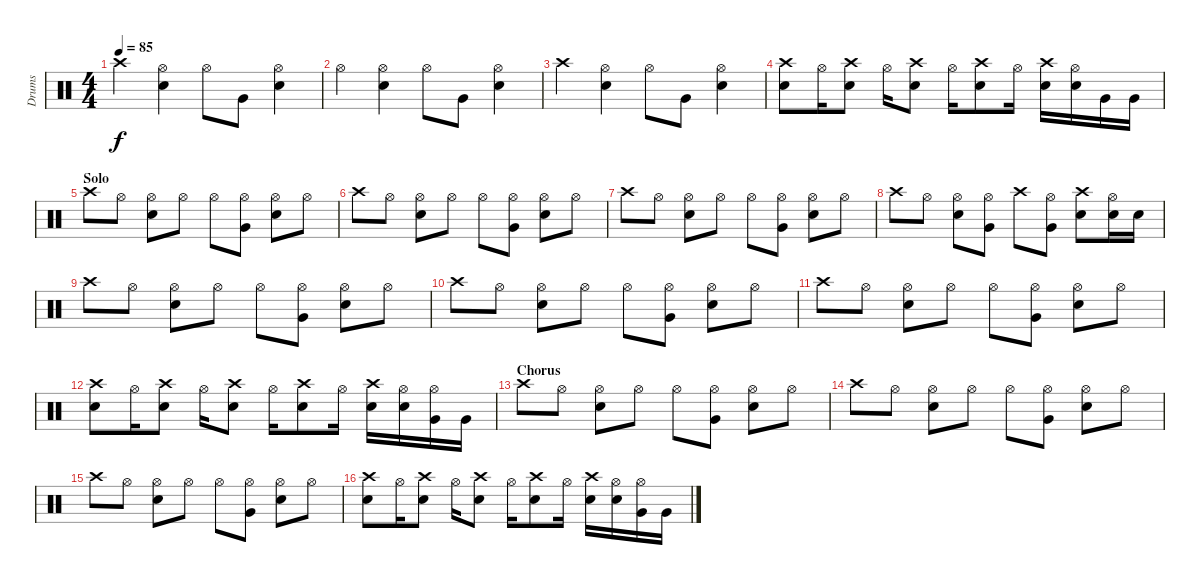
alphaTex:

\track ("Drums" "Drums") {instrument percussion}
\staff {score}
\articulation defaults
\ts (4 4)
\tempo 85
\clef neutral
\ks c "Crash high (hit)".4{dy f}
("Hi-Hat (open)" "Electric Snare (hit)").4 "Hi-Hat (open)".8 "Very Low Tom (hit)".8 ("Hi-Hat (open)" "Electric Snare (hit)").4 |
"Hi-Hat (open)".4 ("Hi-Hat (open)" "Electric Snare (hit)").4 "Hi-Hat (open)".8 "Very Low Tom (hit)".8 ("Hi-Hat (open)" "Electric Snare (hit)").4 |
"Crash high (hit)".4 ("Hi-Hat (open)" "Electric Snare (hit)").4 "Hi-Hat (open)".8 "Very Low Tom (hit)".8 ("Hi-Hat (open)" "Electric Snare (hit)").4 |
("Crash high (hit)" "Electric Snare (hit)").8 "Hi-Hat (open)".16 ("Crash high (hit)" "Electric Snare (hit)").8 "Hi-Hat (open)".16 ("Crash high (hit)" "Electric Snare (hit)").8 "Hi-Hat (open)".16 ("Crash high (hit)" "Electric Snare (hit)").8 "Hi-Hat (open)".16 ("Crash high (hit)" "Electric Snare (hit)").16 ("Hi-Hat (open)" "Electric Snare (hit)").16 "Very Low Tom (hit)".16 "Very Low Tom (hit)".16 |
\section ("" "Solo")
"Crash high (hit)".8 "Hi-Hat (open)".8 ("Hi-Hat (open)" "Electric Snare (hit)").8 "Hi-Hat (open)".8 "Hi-Hat (open)".8 ("Hi-Hat (open)" "Very Low Tom (hit)").8 ("Hi-Hat (open)" "Electric Snare (hit)").8 "Hi-Hat (open)".8 |
"Crash high (hit)".8 "Hi-Hat (open)".8 ("Hi-Hat (open)" "Electric Snare (hit)").8 "Hi-Hat (open)".8 "Hi-Hat (open)".8 ("Hi-Hat (open)" "Very Low Tom (hit)").8 ("Hi-Hat (open)" "Electric Snare (hit)").8 "Hi-Hat (open)".8 |
"Crash high (hit)".8 "Hi-Hat (open)".8 ("Hi-Hat (open)" "Electric Snare (hit)").8 "Hi-Hat (open)".8 "Hi-Hat (open)".8 ("Hi-Hat (open)" "Very Low Tom (hit)").8 ("Hi-Hat (open)" "Electric Snare (hit)").8 "Hi-Hat (open)".8 |
"Crash high (hit)".8 "Hi-Hat (open)".8 ("Hi-Hat (open)" "Electric Snare (hit)").8 ("Hi-Hat (open)" "Very Low Tom (hit)").8 "Crash high (hit)".8 ("Hi-Hat (open)" "Very Low Tom (hit)").8 ("Crash high (hit)" "Electric Snare (hit)").8 ("Hi-Hat (open)" "Electric Snare (hit)").16 "Electric Snare (hit)".16 |
"Crash high (hit)".8 "Hi-Hat (open)".8 ("Hi-Hat (open)" "Electric Snare (hit)").8 "Hi-Hat (open)".8 "Hi-Hat (open)".8 ("Hi-Hat (open)" "Very Low Tom (hit)").8 ("Hi-Hat (open)" "Electric Snare (hit)").8 "Hi-Hat (open)".8 |
"Crash high (hit)".8 "Hi-Hat (open)".8 ("Hi-Hat (open)" "Electric Snare (hit)").8 "Hi-Hat (open)".8 "Hi-Hat (open)".8 ("Hi-Hat (open)" "Very Low Tom (hit)").8 ("Hi-Hat (open)" "Electric Snare (hit)").8 "Hi-Hat (open)".8 |
"Crash high (hit)".8 "Hi-Hat (open)".8 ("Hi-Hat (open)" "Electric Snare (hit)").8 "Hi-Hat (open)".8 "Hi-Hat (open)".8 ("Hi-Hat (open)" "Very Low Tom (hit)").8 ("Hi-Hat (open)" "Electric Snare (hit)").8 "Hi-Hat (open)".8 |
("Crash high (hit)" "Electric Snare (hit)").8 "Hi-Hat (open)".16 ("Crash high (hit)" "Electric Snare (hit)").8 "Hi-Hat (open)".16 ("Crash high (hit)" "Electric Snare (hit)").8 "Hi-Hat (open)".16 ("Crash high (hit)" "Electric Snare (hit)").8 "Hi-Hat (open)".16 ("Crash high (hit)" "Electric Snare (hit)").16 ("Hi-Hat (open)" "Electric Snare (hit)").16 ("Hi-Hat (open)" "Very Low Tom (hit)").16 "Very Low Tom (hit)".16 |
\section ("" "Chorus")
"Crash high (hit)".8 "Hi-Hat (open)".8 ("Hi-Hat (open)" "Electric Snare (hit)").8 "Hi-Hat (open)".8 "Hi-Hat (open)".8 ("Hi-Hat (open)" "Very Low Tom (hit)").8 ("Hi-Hat (open)" "Electric Snare (hit)").8 "Hi-Hat (open)".8 |
"Crash high (hit)".8 "Hi-Hat (open)".8 ("Hi-Hat (open)" "Electric Snare (hit)").8 "Hi-Hat (open)".8 "Hi-Hat (open)".8 ("Hi-Hat (open)" "Very Low Tom (hit)").8 ("Hi-Hat (open)" "Electric Snare (hit)").8 "Hi-Hat (open)".8 |
"Crash high (hit)".8 "Hi-Hat (open)".8 ("Hi-Hat (open)" "Electric Snare (hit)").8 "Hi-Hat (open)".8 "Hi-Hat (open)".8 ("Hi-Hat (open)" "Very Low Tom (hit)").8 ("Hi-Hat (open)" "Electric Snare (hit)").8 "Hi-Hat (open)".8 |
("Crash high (hit)" "Electric Snare (hit)").8 "Hi-Hat (open)".16 ("Crash high (hit)" "Electric Snare (hit)").8 "Hi-Hat (open)".16 ("Crash high (hit)" "Electric Snare (hit)").8 "Hi-Hat (open)".16 ("Crash high (hit)" "Electric Snare (hit)").8 "Hi-Hat (open)".16 ("Crash high (hit)" "Electric Snare (hit)").16 ("Hi-Hat (open)" "Electric Snare (hit)").16 ("Hi-Hat (open)" "Very Low Tom (hit)").16 "Very Low Tom (hit)".16
